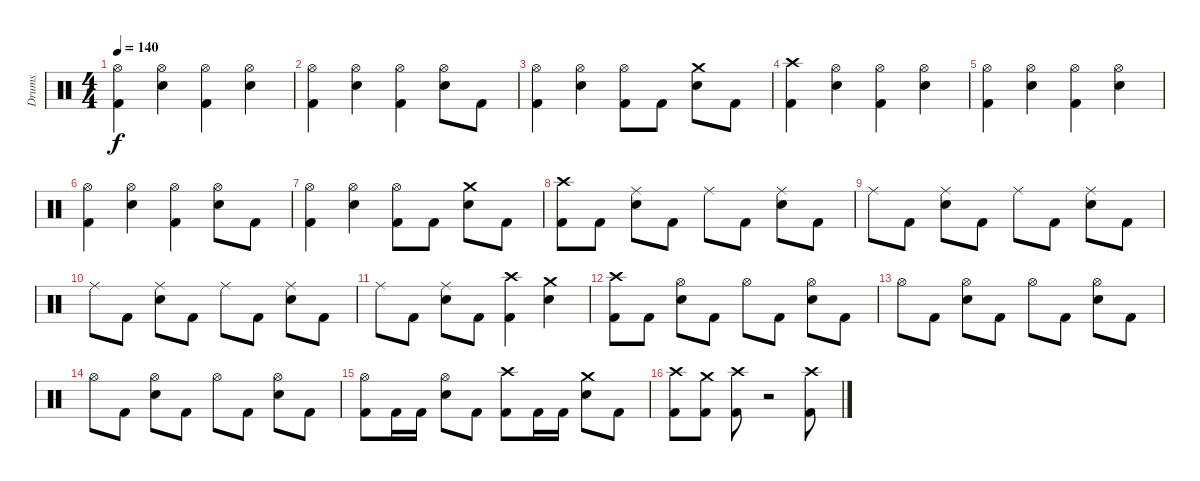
\track ("Drums" "Drums") {instrument percussion}
\staff {score}
\articulation defaults
\ts (4 4)
\tempo 140
\clef neutral
\ks c
("Hi-Hat (open)" "Kick (hit) 2").4{dy f} ("Hi-Hat (open)" "Electric Snare (hit)").4 ("Hi-Hat (open)" "Kick (hit) 2").4 ("Hi-Hat (open)" "Electric Snare (hit)").4 |
("Hi-Hat (open)" "Kick (hit) 2").4 ("Hi-Hat (open)" "Electric Snare (hit)").4 ("Hi-Hat (open)" "Kick (hit) 2").4 ("Hi-Hat (open)" "Electric Snare (hit)").8 "Kick (hit) 2".8 |
("Hi-Hat (open)" "Kick (hit) 2").4 ("Hi-Hat (open)" "Electric Snare (hit)").4 ("Hi-Hat (open)" "Kick (hit) 2").8 "Kick (hit) 2".8 ("Crash medium (hit)" "Electric Snare (hit)").8 "Kick (hit) 2".8 |
("Crash high (hit)" "Kick (hit) 2").4 ("Hi-Hat (open)" "Electric Snare (hit)").4 ("Hi-Hat (open)" "Kick (hit) 2").4 ("Hi-Hat (open)" "Electric Snare (hit)").4 |
("Hi-Hat (open)" "Kick (hit) 2").4 ("Hi-Hat (open)" "Electric Snare (hit)").4 ("Hi-Hat (open)" "Kick (hit) 2").4 ("Hi-Hat (open)" "Electric Snare (hit)").4 |
("Hi-Hat (open)" "Kick (hit) 2").4 ("Hi-Hat (open)" "Electric Snare (hit)").4 ("Hi-Hat (open)" "Kick (hit) 2").4 ("Hi-Hat (open)" "Electric Snare (hit)").8 "Kick (hit) 2".8 |
("Hi-Hat (open)" "Kick (hit) 2").4 ("Hi-Hat (open)" "Electric Snare (hit)").4 ("Hi-Hat (open)" "Kick (hit) 2").8 "Kick (hit) 2".8 ("Crash medium (hit)" "Electric Snare (hit)").8 "Kick (hit) 2".8 |
("Crash high (hit)" "Kick (hit) 2").8 "Kick (hit) 2".8 ("Ride (middle)" "Electric Snare (hit)").8 "Kick (hit) 2".8 "Ride (middle)".8 "Kick (hit) 2".8 ("Ride (middle)" "Electric Snare (hit)").8 "Kick (hit) 2".8 |
"Ride (middle)".8 "Kick (hit) 2".8 ("Ride (middle)" "Electric Snare (hit)").8 "Kick (hit) 2".8 "Ride (middle)".8 "Kick (hit) 2".8 ("Ride (middle)" "Electric Snare (hit)").8 "Kick (hit) 2".8 |
"Ride (middle)".8 "Kick (hit) 2".8 ("Ride (middle)" "Electric Snare (hit)").8 "Kick (hit) 2".8 "Ride (middle)".8 "Kick (hit) 2".8 ("Ride (middle)" "Electric Snare (hit)").8 "Kick (hit) 2".8 |
"Ride (middle)".8 "Kick (hit) 2".8 ("Ride (middle)" "Electric Snare (hit)").8 "Kick (hit) 2".8 ("Crash high (hit)" "Kick (hit) 2").4 ("Crash medium (hit)" "Electric Snare (hit)").4 |
("Crash high (hit)" "Kick (hit) 2").8 "Kick (hit) 2".8 ("Hi-Hat (open)" "Electric Snare (hit)").8 "Kick (hit) 2".8 "Hi-Hat (open)".8 "Kick (hit) 2".8 ("Hi-Hat (open)" "Electric Snare (hit)").8 "Kick (hit) 2".8 |
"Hi-Hat (open)".8 "Kick (hit) 2".8 ("Hi-Hat (open)" "Electric Snare (hit)").8 "Kick (hit) 2".8 "Hi-Hat (open)".8 "Kick (hit) 2".8 ("Hi-Hat (open)" "Electric Snare (hit)").8 "Kick (hit) 2".8 |
"Hi-Hat (open)".8 "Kick (hit) 2".8 ("Hi-Hat (open)" "Electric Snare (hit)").8 "Kick (hit) 2".8 "Hi-Hat (open)".8 "Kick (hit) 2".8 ("Hi-Hat (open)" "Electric Snare (hit)").8 "Kick (hit) 2".8 |
("Hi-Hat (open)" "Kick (hit) 2").8 "Kick (hit) 2".16 "Kick (hit) 2".16 ("Hi-Hat (open)" "Electric Snare (hit)").8 "Kick (hit) 2".8 ("Crash high (hit)" "Kick (hit) 2").8 "Kick (hit) 2".16 "Kick (hit) 2".16 ("Crash medium (hit)" "Electric Snare (hit)").8 "Kick (hit) 2".8 |
("Crash high (hit)" "Kick (hit) 2").8 ("Crash medium (hit)" "Kick (hit) 2").8 ("Crash high (hit)" "Kick (hit) 2").8 r.2 ("Crash high (hit)" "Kick (hit) 2").8
